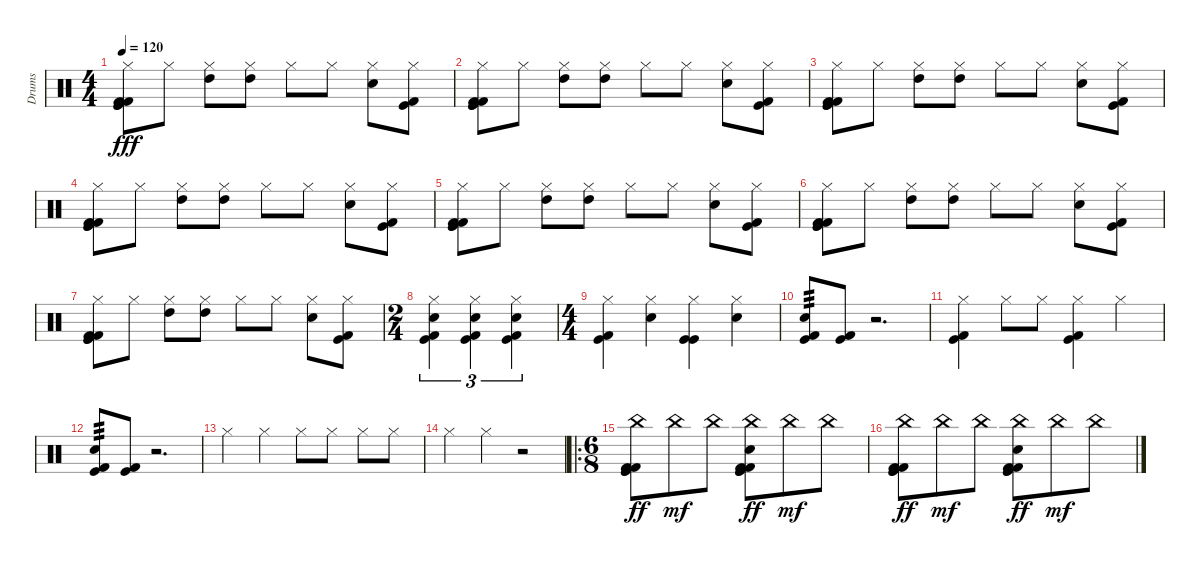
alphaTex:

\track ("Drums" "Drums") {instrument percussion}
\staff {score}
\articulation defaults
\ts (4 4)
\tempo 120
\clef neutral
\ks c
("Hi-Hat (closed)" "Kick (hit) 2" "Kick (hit) 2" "Kick (hit)" "Kick (hit)").8{dy fff} "Hi-Hat (closed)".8 ("Hi-Hat (closed)" "High Tom (hit)").8 ("Hi-Hat (closed)" "High Tom (hit)").8 "Hi-Hat (closed)".8 "Hi-Hat (closed)".8 ("Hi-Hat (closed)" "Snare (hit) 2").8 ("Hi-Hat (closed)" "Kick (hit) 2" "Kick (hit)").8 |
("Hi-Hat (closed)" "Kick (hit) 2" "Kick (hit) 2" "Kick (hit)" "Kick (hit)").8 "Hi-Hat (closed)".8 ("Hi-Hat (closed)" "High Tom (hit)").8 ("Hi-Hat (closed)" "High Tom (hit)").8 "Hi-Hat (closed)".8 "Hi-Hat (closed)".8 ("Hi-Hat (closed)" "Snare (hit) 2").8 ("Hi-Hat (closed)" "Kick (hit) 2" "Kick (hit)").8 |
("Hi-Hat (closed)" "Kick (hit) 2" "Kick (hit) 2" "Kick (hit)" "Kick (hit)").8 "Hi-Hat (closed)".8 ("Hi-Hat (closed)" "High Tom (hit)").8 ("Hi-Hat (closed)" "High Tom (hit)").8 "Hi-Hat (closed)".8 "Hi-Hat (closed)".8 ("Hi-Hat (closed)" "Snare (hit) 2").8 ("Hi-Hat (closed)" "Kick (hit) 2" "Kick (hit)").8 |
("Hi-Hat (closed)" "Kick (hit) 2" "Kick (hit) 2" "Kick (hit)" "Kick (hit)").8 "Hi-Hat (closed)".8 ("Hi-Hat (closed)" "High Tom (hit)").8 ("Hi-Hat (closed)" "High Tom (hit)").8 "Hi-Hat (closed)".8 "Hi-Hat (closed)".8 ("Hi-Hat (closed)" "Snare (hit) 2").8 ("Hi-Hat (closed)" "Kick (hit) 2" "Kick (hit)").8 |
("Hi-Hat (closed)" "Kick (hit) 2" "Kick (hit) 2" "Kick (hit)" "Kick (hit)").8 "Hi-Hat (closed)".8 ("Hi-Hat (closed)" "High Tom (hit)").8 ("Hi-Hat (closed)" "High Tom (hit)").8 "Hi-Hat (closed)".8 "Hi-Hat (closed)".8 ("Hi-Hat (closed)" "Snare (hit) 2").8 ("Hi-Hat (closed)" "Kick (hit) 2" "Kick (hit)").8 |
("Hi-Hat (closed)" "Kick (hit) 2" "Kick (hit) 2" "Kick (hit)" "Kick (hit)").8 "Hi-Hat (closed)".8 ("Hi-Hat (closed)" "High Tom (hit)").8 ("Hi-Hat (closed)" "High Tom (hit)").8 "Hi-Hat (closed)".8 "Hi-Hat (closed)".8 ("Hi-Hat (closed)" "Snare (hit) 2").8 ("Hi-Hat (closed)" "Kick (hit) 2" "Kick (hit)").8 |
("Hi-Hat (closed)" "Kick (hit) 2" "Kick (hit) 2" "Kick (hit)" "Kick (hit)").8 "Hi-Hat (closed)".8 ("Hi-Hat (closed)" "High Tom (hit)").8 ("Hi-Hat (closed)" "High Tom (hit)").8 "Hi-Hat (closed)".8 "Hi-Hat (closed)".8 ("Hi-Hat (closed)" "Snare (hit) 2").8 ("Hi-Hat (closed)" "Kick (hit) 2" "Kick (hit)").8 |
\ts (2 4)
("Hi-Hat (closed)" "Snare (hit) 2" "Kick (hit) 2" "Kick (hit)").4{tu (3 2)} ("Hi-Hat (closed)" "Snare (hit) 2" "Kick (hit) 2" "Kick (hit)").4{tu (3 2)} ("Hi-Hat (closed)" "Snare (hit) 2" "Kick (hit) 2" "Kick (hit)").4{tu (3 2)} |
\ts (4 4)
("Hi-Hat (closed)" "Kick (hit) 2" "Kick (hit)").4 ("Hi-Hat (closed)" "Snare (hit) 2").4 ("Hi-Hat (closed)" "Kick (hit)" "Kick (hit)").4 ("Hi-Hat (closed)" "Snare (hit) 2").4 |
("Snare (hit) 2" "Kick (hit) 2" "Kick (hit)").8{tp 3} ("Kick (hit) 2" "Kick (hit)").8 r.2{d} |
("Hi-Hat (closed)" "Kick (hit) 2" "Kick (hit)").4 "Hi-Hat (closed)".8 "Hi-Hat (closed)".8 ("Hi-Hat (closed)" "Kick (hit) 2" "Kick (hit)").4 "Hi-Hat (closed)".4 |
("Snare (hit) 2" "Kick (hit) 2" "Kick (hit)").8{tp 3} ("Kick (hit) 2" "Kick (hit)").8 r.2{d} |
"Hi-Hat (closed)".4 "Hi-Hat (closed)".4 "Hi-Hat (closed)".8 "Hi-Hat (closed)".8 "Hi-Hat (closed)".8 "Hi-Hat (closed)".8 |
"Hi-Hat (closed)".4 "Hi-Hat (closed)".4 r.2 |
\ro
\ts (6 8)
("China (hit)" "Kick (hit) 2" "Kick (hit) 2" "Kick (hit)" "Kick (hit)").8{dy ff} "China (hit)".8{dy mf} "China (hit)".8 ("China (hit)" "Snare (hit) 2" "Kick (hit) 2" "Kick (hit) 2" "Kick (hit)" "Kick (hit)").8{dy ff} "China (hit)".8{dy mf} "China (hit)".8 |
("China (hit)" "Kick (hit) 2" "Kick (hit) 2" "Kick (hit)" "Kick (hit)").8{dy ff} "China (hit)".8{dy mf} "China (hit)".8 ("China (hit)" "Snare (hit) 2" "Kick (hit) 2" "Kick (hit) 2" "Kick (hit)" "Kick (hit)").8{dy ff} "China (hit)".8{dy mf} "China (hit)".8
